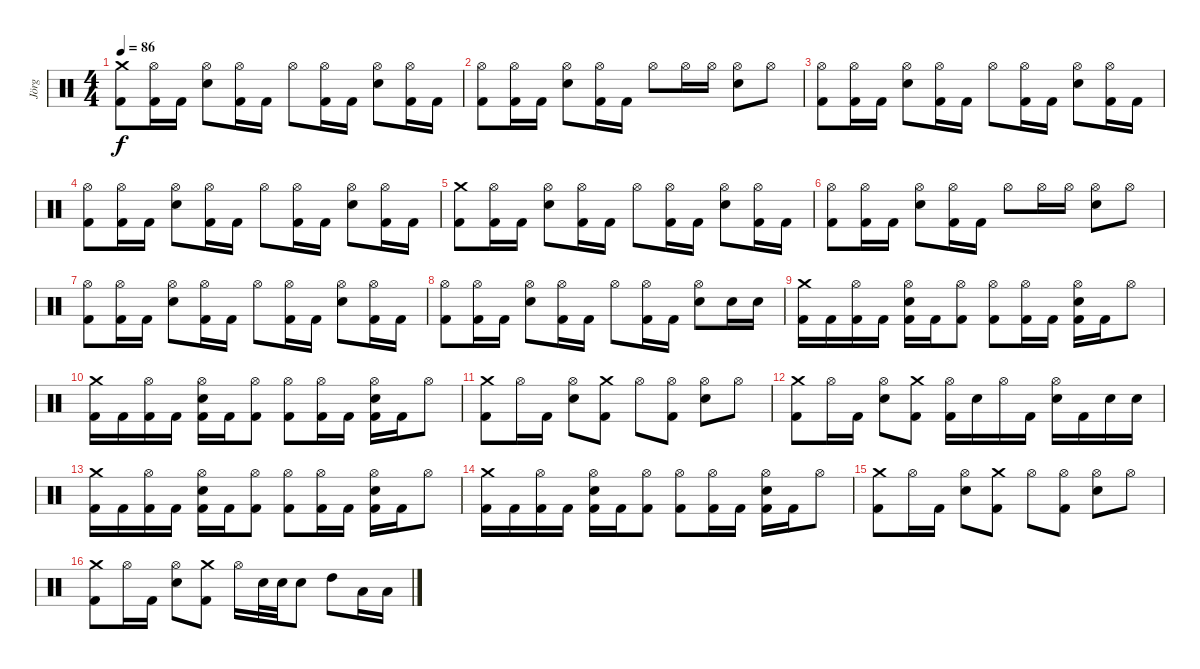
\track ("Jörg" "Jörg") {instrument percussion}
\staff {score}
\articulation defaults
\ts (4 4)
\tempo 86
\clef neutral
\ks c
("Kick (hit) 2" "Crash medium (hit)").8{dy f} ("Kick (hit) 2" "Hi-Hat (open)").16 "Kick (hit) 2".16 ("Snare (hit) 2" "Hi-Hat (open)").8 ("Kick (hit) 2" "Hi-Hat (open)").16 "Kick (hit) 2".16 "Hi-Hat (open)".8 ("Kick (hit) 2" "Hi-Hat (open)").16 "Kick (hit) 2".16 ("Snare (hit) 2" "Hi-Hat (open)").8 ("Kick (hit) 2" "Hi-Hat (open)").16 "Kick (hit) 2".16 |
("Kick (hit) 2" "Hi-Hat (open)").8 ("Kick (hit) 2" "Hi-Hat (open)").16 "Kick (hit) 2".16 ("Snare (hit) 2" "Hi-Hat (open)").8 ("Kick (hit) 2" "Hi-Hat (open)").16 "Kick (hit) 2".16 "Hi-Hat (open)".8 "Hi-Hat (open)".16 "Hi-Hat (open)".16 ("Snare (hit) 2" "Hi-Hat (open)").8 "Hi-Hat (open)".8 |
("Kick (hit) 2" "Hi-Hat (open)").8 ("Kick (hit) 2" "Hi-Hat (open)").16 "Kick (hit) 2".16 ("Snare (hit) 2" "Hi-Hat (open)").8 ("Kick (hit) 2" "Hi-Hat (open)").16 "Kick (hit) 2".16 "Hi-Hat (open)".8 ("Kick (hit) 2" "Hi-Hat (open)").16 "Kick (hit) 2".16 ("Snare (hit) 2" "Hi-Hat (open)").8 ("Kick (hit) 2" "Hi-Hat (open)").16 "Kick (hit) 2".16 |
("Kick (hit) 2" "Hi-Hat (open)").8 ("Kick (hit) 2" "Hi-Hat (open)").16 "Kick (hit) 2".16 ("Snare (hit) 2" "Hi-Hat (open)").8 ("Kick (hit) 2" "Hi-Hat (open)").16 "Kick (hit) 2".16 "Hi-Hat (open)".8 ("Kick (hit) 2" "Hi-Hat (open)").16 "Kick (hit) 2".16 ("Snare (hit) 2" "Hi-Hat (open)").8 ("Kick (hit) 2" "Hi-Hat (open)").16 "Kick (hit) 2".16 |
("Crash medium (hit)" "Kick (hit) 2").8 ("Kick (hit) 2" "Hi-Hat (open)").16 "Kick (hit) 2".16 ("Snare (hit) 2" "Hi-Hat (open)").8 ("Kick (hit) 2" "Hi-Hat (open)").16 "Kick (hit) 2".16 "Hi-Hat (open)".8 ("Kick (hit) 2" "Hi-Hat (open)").16 "Kick (hit) 2".16 ("Snare (hit) 2" "Hi-Hat (open)").8 ("Kick (hit) 2" "Hi-Hat (open)").16 "Kick (hit) 2".16 |
("Kick (hit) 2" "Hi-Hat (open)").8 ("Kick (hit) 2" "Hi-Hat (open)").16 "Kick (hit) 2".16 ("Snare (hit) 2" "Hi-Hat (open)").8 ("Kick (hit) 2" "Hi-Hat (open)").16 "Kick (hit) 2".16 "Hi-Hat (open)".8 "Hi-Hat (open)".16 "Hi-Hat (open)".16 ("Snare (hit) 2" "Hi-Hat (open)").8 "Hi-Hat (open)".8 |
("Kick (hit) 2" "Hi-Hat (open)").8 ("Kick (hit) 2" "Hi-Hat (open)").16 "Kick (hit) 2".16 ("Snare (hit) 2" "Hi-Hat (open)").8 ("Kick (hit) 2" "Hi-Hat (open)").16 "Kick (hit) 2".16 "Hi-Hat (open)".8 ("Kick (hit) 2" "Hi-Hat (open)").16 "Kick (hit) 2".16 ("Snare (hit) 2" "Hi-Hat (open)").8 ("Kick (hit) 2" "Hi-Hat (open)").16 "Kick (hit) 2".16 |
("Kick (hit) 2" "Hi-Hat (open)").8 ("Kick (hit) 2" "Hi-Hat (open)").16 "Kick (hit) 2".16 ("Snare (hit) 2" "Hi-Hat (open)").8 ("Kick (hit) 2" "Hi-Hat (open)").16 "Kick (hit) 2".16 "Hi-Hat (open)".8 ("Kick (hit) 2" "Hi-Hat (open)").16 "Kick (hit) 2".16 ("Snare (hit) 2" "Hi-Hat (open)").8 "Snare (hit) 2".16 "Snare (hit) 2".16 |
("Kick (hit) 2" "Crash medium (hit)").16 "Kick (hit) 2".16 ("Kick (hit) 2" "Hi-Hat (open)").16 "Kick (hit) 2".16 ("Kick (hit) 2" "Snare (hit) 2" "Hi-Hat (open)").16 "Kick (hit) 2".16 ("Kick (hit) 2" "Hi-Hat (open)").8 ("Kick (hit) 2" "Hi-Hat (open)").8 ("Kick (hit) 2" "Hi-Hat (open)").16 "Kick (hit) 2".16 ("Kick (hit) 2" "Snare (hit) 2" "Hi-Hat (open)").16 "Kick (hit) 2".16 "Hi-Hat (open)".8 |
("Kick (hit) 2" "Crash medium (hit)").16 "Kick (hit) 2".16 ("Kick (hit) 2" "Hi-Hat (open)").16 "Kick (hit) 2".16 ("Kick (hit) 2" "Snare (hit) 2" "Hi-Hat (open)").16 "Kick (hit) 2".16 ("Kick (hit) 2" "Hi-Hat (open)").8 ("Kick (hit) 2" "Hi-Hat (open)").8 ("Kick (hit) 2" "Hi-Hat (open)").16 "Kick (hit) 2".16 ("Kick (hit) 2" "Snare (hit) 2" "Hi-Hat (open)").16 "Kick (hit) 2".16 "Hi-Hat (open)".8 |
("Kick (hit) 2" "Crash medium (hit)").8 "Hi-Hat (open)".16 "Kick (hit) 2".16 ("Snare (hit) 2" "Hi-Hat (open)").8 ("Kick (hit) 2" "Crash medium (hit)").8 "Hi-Hat (open)".8 ("Kick (hit) 2" "Hi-Hat (open)").8 ("Snare (hit) 2" "Hi-Hat (open)").8 "Hi-Hat (open)".8 |
("Kick (hit) 2" "Crash medium (hit)").8 "Hi-Hat (open)".16 "Kick (hit) 2".16 ("Snare (hit) 2" "Hi-Hat (open)").8 ("Kick (hit) 2" "Crash medium (hit)").8 ("Kick (hit) 2" "Hi-Hat (open)").16 "Snare (hit) 2".16 "Hi-Hat (open)".16 "Kick (hit) 2".16 ("Snare (hit) 2" "Hi-Hat (open)").16 "Kick (hit) 2".16 "Snare (hit) 2".16 "Snare (hit) 2".16 |
("Kick (hit) 2" "Crash medium (hit)").16 "Kick (hit) 2".16 ("Kick (hit) 2" "Hi-Hat (open)").16 "Kick (hit) 2".16 ("Kick (hit) 2" "Snare (hit) 2" "Hi-Hat (open)").16 "Kick (hit) 2".16 ("Kick (hit) 2" "Hi-Hat (open)").8 ("Kick (hit) 2" "Hi-Hat (open)").8 ("Kick (hit) 2" "Hi-Hat (open)").16 "Kick (hit) 2".16 ("Kick (hit) 2" "Snare (hit) 2" "Hi-Hat (open)").16 "Kick (hit) 2".16 "Hi-Hat (open)".8 |
("Kick (hit) 2" "Crash medium (hit)").16 "Kick (hit) 2".16 ("Kick (hit) 2" "Hi-Hat (open)").16 "Kick (hit) 2".16 ("Kick (hit) 2" "Snare (hit) 2" "Hi-Hat (open)").16 "Kick (hit) 2".16 ("Kick (hit) 2" "Hi-Hat (open)").8 ("Kick (hit) 2" "Hi-Hat (open)").8 ("Kick (hit) 2" "Hi-Hat (open)").16 "Kick (hit) 2".16 ("Kick (hit) 2" "Snare (hit) 2" "Hi-Hat (open)").16 "Kick (hit) 2".16 "Hi-Hat (open)".8 |
("Kick (hit) 2" "Crash medium (hit)").8 "Hi-Hat (open)".16 "Kick (hit) 2".16 ("Snare (hit) 2" "Hi-Hat (open)").8 ("Kick (hit) 2" "Crash medium (hit)").8 "Hi-Hat (open)".8 ("Kick (hit) 2" "Hi-Hat (open)").8 ("Snare (hit) 2" "Hi-Hat (open)").8 "Hi-Hat (open)".8 |
("Kick (hit) 2" "Crash medium (hit)").8 "Hi-Hat (open)".16 "Kick (hit) 2".16 ("Snare (hit) 2" "Hi-Hat (open)").8 ("Kick (hit) 2" "Crash medium (hit)").8 "Hi-Hat (open)".16 "Snare (hit) 2".32 "Snare (hit) 2".32 "Snare (hit) 2".8 "High Tom (hit)".8 "Low Tom (hit)".16 "Low Tom (hit)".16
